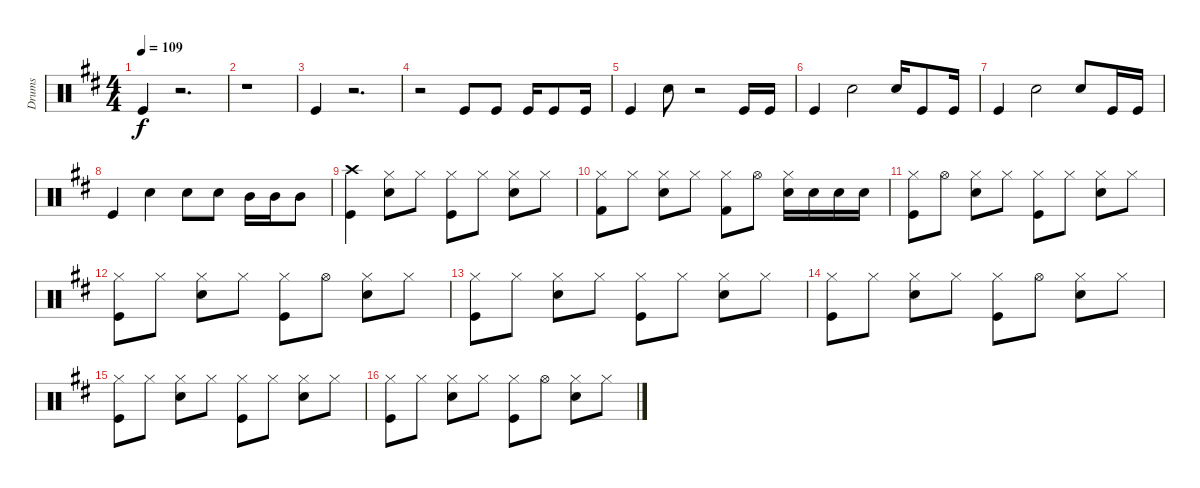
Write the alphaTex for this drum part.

\track ("Drums" "Drums") {instrument percussion}
\staff {score}
\articulation defaults
\ts (4 4)
\tempo 109
\clef neutral
\ks d "Kick (hit)".4{dy f}
r.2{d} |
r.1 |
"Kick (hit)".4 r.2{d} |
r.2 "Kick (hit)".8 "Kick (hit)".8 "Kick (hit)".16 "Kick (hit)".8 "Kick (hit)".16 |
"Kick (hit)".4 "Snare (hit) 2".8 r.2 "Kick (hit)".16 "Kick (hit)".16 |
"Kick (hit)".4 "Snare (hit) 2".2 "Snare (hit) 2".16 "Kick (hit)".8 "Kick (hit)".16 |
"Kick (hit)".4 "Snare (hit) 2".2 "Snare (hit) 2".8 "Kick (hit)".16 "Kick (hit)".16 |
"Kick (hit)".4 "Snare (hit) 2".4 "Electric Snare (hit)".8 "Electric Snare (hit)".8 "Mid Tom (hit)".16 "Mid Tom (hit)".16 "Mid Tom (hit)".8 |
("Crash high (hit)" "Kick (hit)").4 ("Hi-Hat (closed)" "Snare (hit) 2").8 "Hi-Hat (closed)".8 ("Hi-Hat (closed)" "Kick (hit)").8 "Hi-Hat (closed)".8 ("Hi-Hat (closed)" "Snare (hit) 2").8 "Hi-Hat (closed)".8 |
("Hi-Hat (closed)" "Kick (hit) 2").8 "Hi-Hat (closed)".8 ("Hi-Hat (closed)" "Snare (hit) 2").8 "Hi-Hat (closed)".8 ("Hi-Hat (closed)" "Kick (hit) 2").8 "Hi-Hat (open)".8 ("Hi-Hat (closed)" "Electric Snare (hit)").16 "Electric Snare (hit)".16 "Electric Snare (hit)".16 "Electric Snare (hit)".16 |
("Hi-Hat (closed)" "Kick (hit)").8 "Hi-Hat (open)".8 ("Hi-Hat (closed)" "Snare (hit) 2").8 "Hi-Hat (closed)".8 ("Hi-Hat (closed)" "Kick (hit)").8 "Hi-Hat (closed)".8 ("Hi-Hat (closed)" "Snare (hit) 2").8 "Hi-Hat (closed)".8 |
("Hi-Hat (closed)" "Kick (hit)").8 "Hi-Hat (closed)".8 ("Hi-Hat (closed)" "Snare (hit) 2").8 "Hi-Hat (closed)".8 ("Hi-Hat (closed)" "Kick (hit)").8 "Hi-Hat (open)".8 ("Hi-Hat (closed)" "Snare (hit) 2").8 "Hi-Hat (closed)".8 |
("Hi-Hat (closed)" "Kick (hit)").8 "Hi-Hat (closed)".8 ("Hi-Hat (closed)" "Snare (hit) 2").8 "Hi-Hat (closed)".8 ("Hi-Hat (closed)" "Kick (hit)").8 "Hi-Hat (closed)".8 ("Hi-Hat (closed)" "Snare (hit) 2").8 "Hi-Hat (closed)".8 |
("Hi-Hat (closed)" "Kick (hit)").8 "Hi-Hat (closed)".8 ("Hi-Hat (closed)" "Snare (hit) 2").8 "Hi-Hat (closed)".8 ("Hi-Hat (closed)" "Kick (hit)").8 "Hi-Hat (open)".8 ("Hi-Hat (closed)" "Snare (hit) 2").8 "Hi-Hat (closed)".8 |
("Hi-Hat (closed)" "Kick (hit)").8 "Hi-Hat (closed)".8 ("Hi-Hat (closed)" "Snare (hit) 2").8 "Hi-Hat (closed)".8 ("Hi-Hat (closed)" "Kick (hit)").8 "Hi-Hat (closed)".8 ("Hi-Hat (closed)" "Snare (hit) 2").8 "Hi-Hat (closed)".8 |
("Hi-Hat (closed)" "Kick (hit)").8 "Hi-Hat (closed)".8 ("Hi-Hat (closed)" "Snare (hit) 2").8 "Hi-Hat (closed)".8 ("Hi-Hat (closed)" "Kick (hit)").8 "Hi-Hat (open)".8 ("Hi-Hat (closed)" "Snare (hit) 2").8 "Hi-Hat (closed)".8
